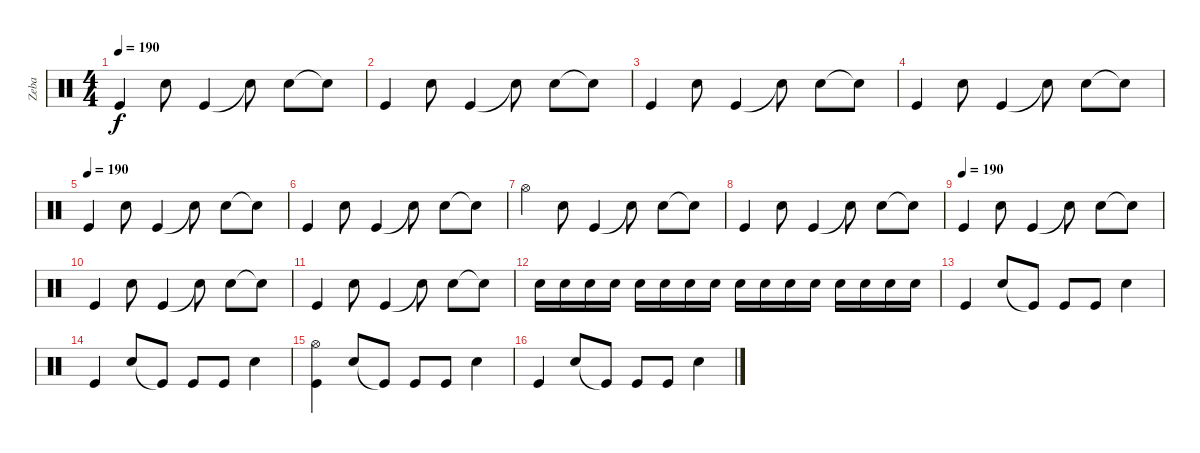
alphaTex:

\track ("Zeba" "Zeba") {instrument percussion}
\staff {score}
\articulation defaults
\ts (4 4)
\tempo 190
\clef neutral
\ks c "Kick (hit)".4{dy f} "Snare (hit) 2".8 "Kick (hit)".4 "Snare (hit) 2"{t}.8 "Snare (hit) 2".8 "Snare (hit)"{t}.8
|
"Kick (hit)".4 "Snare (hit) 2".8 "Kick (hit)".4 "Snare (hit) 2"{t}.8 "Snare (hit) 2".8 "Snare (hit)"{t}.8 |
"Kick (hit)".4 "Snare (hit) 2".8 "Kick (hit)".4 "Snare (hit) 2"{t}.8 "Snare (hit) 2".8 "Snare (hit)"{t}.8 |
"Kick (hit)".4 "Snare (hit) 2".8 "Kick (hit)".4 "Snare (hit) 2"{t}.8 "Snare (hit) 2".8 "Snare (hit)"{t}.8 |
\tempo (190)
"Kick (hit)".4 "Snare (hit) 2".8 "Kick (hit)".4 "Snare (hit) 2"{t}.8 "Snare (hit) 2".8 "Snare (hit)"{t}.8 |
"Kick (hit)".4 "Snare (hit) 2".8 "Kick (hit)".4 "Snare (hit) 2"{t}.8 "Snare (hit) 2".8 "Snare (hit)"{t}.8 |
"Hi-Hat (open)".4 "Snare (hit) 2".8 "Kick (hit)".4 "Snare (hit) 2"{t}.8 "Snare (hit) 2".8 "Snare (hit)"{t}.8 |
"Kick (hit)".4 "Snare (hit) 2".8 "Kick (hit)".4 "Snare (hit) 2"{t}.8 "Snare (hit) 2".8 "Snare (hit)"{t}.8 |
\tempo (190)
"Kick (hit)".4 "Snare (hit) 2".8 "Kick (hit)".4 "Snare (hit) 2"{t}.8 "Snare (hit) 2".8 "Snare (hit)"{t}.8 |
"Kick (hit)".4 "Snare (hit) 2".8 "Kick (hit)".4 "Snare (hit) 2"{t}.8 "Snare (hit) 2".8 "Snare (hit)"{t}.8 |
"Kick (hit)".4 "Snare (hit) 2".8 "Kick (hit)".4 "Snare (hit) 2"{t}.8 "Snare (hit) 2".8 "Snare (hit)"{t}.8 |
"Electric Snare (hit)".16 "Electric Snare (hit)".16 "Electric Snare (hit)".16 "Electric Snare (hit)".16 "Electric Snare (hit)".16 "Electric Snare (hit)".16 "Electric Snare (hit)".16 "Electric Snare (hit)".16 "Snare (hit) 2".16 "Snare (hit) 2".16 "Snare (hit) 2".16 "Snare (hit) 2".16 "Snare (hit) 2".16 "Snare (hit) 2".16 "Snare (hit) 2".16 "Snare (hit) 2".16 |
"Kick (hit)".4 "Snare (hit) 2".8 "Kick (hit)"{t}.8 "Kick (hit)".8 "Kick (hit)".8 "Snare (hit) 2".4 |
"Kick (hit)".4 "Snare (hit) 2".8 "Kick (hit)"{t}.8 "Kick (hit)".8 "Kick (hit)".8 "Snare (hit) 2".4 |
("Hi-Hat (open)" "Kick (hit)").4 "Snare (hit) 2".8 "Kick (hit)"{t}.8 "Kick (hit)".8 "Kick (hit)".8 "Snare (hit) 2".4 |
"Kick (hit)".4 "Snare (hit) 2".8 "Kick (hit)"{t}.8 "Kick (hit)".8 "Kick (hit)".8 "Snare (hit) 2".4
